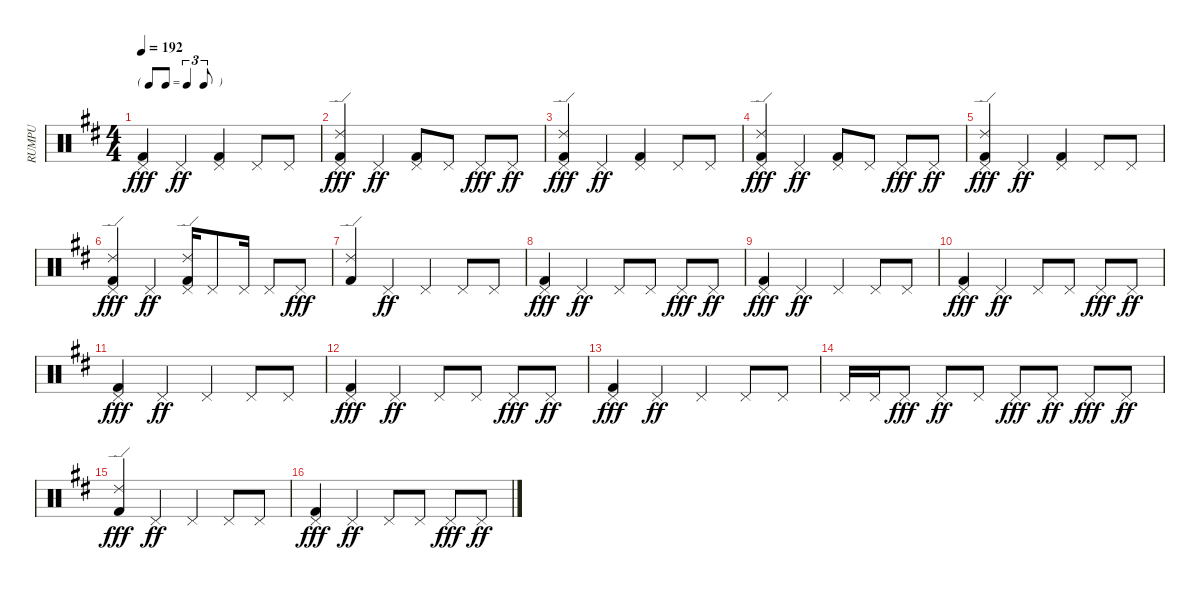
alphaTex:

\track ("RUMPU" "RUMPU") {instrument percussion}
\staff {score}
\articulation defaults
\ts (4 4)
\tf triplet8th
\tempo 192
\clef neutral
\ks d
("Pedal Hi-Hat (hit)" "Kick (hit) 2").4{dy fff} "Pedal Hi-Hat (hit)".4{dy ff} ("Pedal Hi-Hat (hit)" "Kick (hit) 2").4 "Pedal Hi-Hat (hit)".8 "Pedal Hi-Hat (hit)".8 |
("Pedal Hi-Hat (hit)" "Kick (hit) 2" "Ride (edge) 2").4{dy fff} "Pedal Hi-Hat (hit)".4{dy ff} ("Pedal Hi-Hat (hit)" "Kick (hit) 2").8 "Pedal Hi-Hat (hit)".8 "Pedal Hi-Hat (hit)".8{dy fff} "Pedal Hi-Hat (hit)".8{dy ff} |
("Pedal Hi-Hat (hit)" "Kick (hit) 2" "Ride (edge) 2").4{dy fff} "Pedal Hi-Hat (hit)".4{dy ff} ("Pedal Hi-Hat (hit)" "Kick (hit) 2").4 "Pedal Hi-Hat (hit)".8 "Pedal Hi-Hat (hit)".8 |
("Pedal Hi-Hat (hit)" "Kick (hit) 2" "Ride (edge) 2").4{dy fff} "Pedal Hi-Hat (hit)".4{dy ff} ("Pedal Hi-Hat (hit)" "Kick (hit) 2").8 "Pedal Hi-Hat (hit)".8 "Pedal Hi-Hat (hit)".8{dy fff} "Pedal Hi-Hat (hit)".8{dy ff} |
("Pedal Hi-Hat (hit)" "Kick (hit) 2" "Ride (edge) 2").4{dy fff} "Pedal Hi-Hat (hit)".4{dy ff} ("Pedal Hi-Hat (hit)" "Kick (hit) 2").4 "Pedal Hi-Hat (hit)".8 "Pedal Hi-Hat (hit)".8 |
("Pedal Hi-Hat (hit)" "Kick (hit) 2" "Ride (edge) 2").4{dy fff} "Pedal Hi-Hat (hit)".4{dy ff} ("Pedal Hi-Hat (hit)" "Kick (hit) 2" "Ride (edge) 2").16 "Pedal Hi-Hat (hit)".8 "Pedal Hi-Hat (hit)".16 "Pedal Hi-Hat (hit)".8 "Pedal Hi-Hat (hit)".8{dy fff} |
("Ride (edge) 2" "Kick (hit) 2").4 "Pedal Hi-Hat (hit)".4{dy ff} "Pedal Hi-Hat (hit)".4 "Pedal Hi-Hat (hit)".8 "Pedal Hi-Hat (hit)".8 |
("Pedal Hi-Hat (hit)" "Kick (hit) 2").4{dy fff} "Pedal Hi-Hat (hit)".4{dy ff} "Pedal Hi-Hat (hit)".8 "Pedal Hi-Hat (hit)".8 "Pedal Hi-Hat (hit)".8{dy fff} "Pedal Hi-Hat (hit)".8{dy ff} |
("Pedal Hi-Hat (hit)" "Kick (hit) 2").4{dy fff} "Pedal Hi-Hat (hit)".4{dy ff} "Pedal Hi-Hat (hit)".4 "Pedal Hi-Hat (hit)".8 "Pedal Hi-Hat (hit)".8 |
("Pedal Hi-Hat (hit)" "Kick (hit) 2").4{dy fff} "Pedal Hi-Hat (hit)".4{dy ff} "Pedal Hi-Hat (hit)".8 "Pedal Hi-Hat (hit)".8 "Pedal Hi-Hat (hit)".8{dy fff} "Pedal Hi-Hat (hit)".8{dy ff} |
("Pedal Hi-Hat (hit)" "Kick (hit) 2").4{dy fff} "Pedal Hi-Hat (hit)".4{dy ff} "Pedal Hi-Hat (hit)".4 "Pedal Hi-Hat (hit)".8 "Pedal Hi-Hat (hit)".8 |
("Pedal Hi-Hat (hit)" "Kick (hit) 2").4{dy fff} "Pedal Hi-Hat (hit)".4{dy ff} "Pedal Hi-Hat (hit)".8 "Pedal Hi-Hat (hit)".8 "Pedal Hi-Hat (hit)".8{dy fff} "Pedal Hi-Hat (hit)".8{dy ff} |
("Pedal Hi-Hat (hit)" "Kick (hit) 2").4{dy fff} "Pedal Hi-Hat (hit)".4{dy ff} "Pedal Hi-Hat (hit)".4 "Pedal Hi-Hat (hit)".8 "Pedal Hi-Hat (hit)".8 |
"Pedal Hi-Hat (hit)".16 "Pedal Hi-Hat (hit)".16 "Pedal Hi-Hat (hit)".8{dy fff} "Pedal Hi-Hat (hit)".8{dy ff} "Pedal Hi-Hat (hit)".8 "Pedal Hi-Hat (hit)".8{dy fff} "Pedal Hi-Hat (hit)".8{dy ff} "Pedal Hi-Hat (hit)".8{dy fff} "Pedal Hi-Hat (hit)".8{dy ff} |
("Ride (edge) 2" "Kick (hit) 2").4{dy fff} "Pedal Hi-Hat (hit)".4{dy ff} "Pedal Hi-Hat (hit)".4 "Pedal Hi-Hat (hit)".8 "Pedal Hi-Hat (hit)".8 |
("Pedal Hi-Hat (hit)" "Kick (hit) 2").4{dy fff} "Pedal Hi-Hat (hit)".4{dy ff} "Pedal Hi-Hat (hit)".8 "Pedal Hi-Hat (hit)".8 "Pedal Hi-Hat (hit)".8{dy fff} "Pedal Hi-Hat (hit)".8{dy ff}
